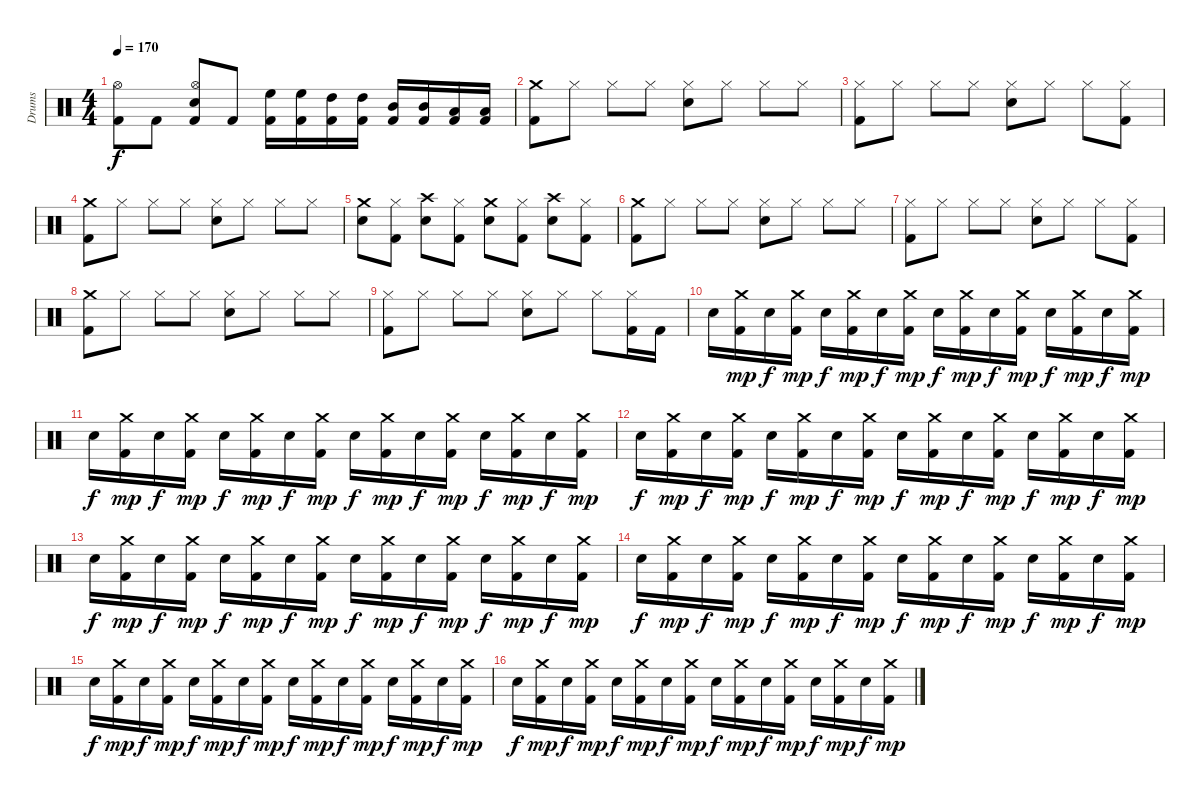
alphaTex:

\track ("Drums" "Drums") {instrument percussion}
\staff {score}
\articulation defaults
\ts (4 4)
\tempo 170
\clef neutral
\ks c
("Kick (hit) 2" "Hi-Hat (open)").8{dy f} "Kick (hit) 2".8 ("Kick (hit) 2" "Snare (hit) 2" "Hi-Hat (open)").8 "Kick (hit) 2".8 ("Kick (hit) 2" "High Floor Tom (hit)").16 ("Kick (hit) 2" "High Floor Tom (hit)").16 ("Kick (hit) 2" "High Tom (hit)").16 ("Kick (hit) 2" "High Tom (hit)").16 ("Kick (hit) 2" "Mid Tom (hit)").16 ("Kick (hit) 2" "Mid Tom (hit)").16 ("Kick (hit) 2" "Low Tom (hit)").16 ("Kick (hit) 2" "Low Tom (hit)").16 |
("Kick (hit) 2" "Crash medium (hit)").8 "Hi-Hat (closed)".8 "Hi-Hat (closed)".8 "Hi-Hat (closed)".8 ("Snare (hit) 2" "Hi-Hat (closed)").8 "Hi-Hat (closed)".8 "Hi-Hat (closed)".8 "Hi-Hat (closed)".8 |
("Kick (hit) 2" "Hi-Hat (closed)").8 "Hi-Hat (closed)".8 "Hi-Hat (closed)".8 "Hi-Hat (closed)".8 ("Snare (hit) 2" "Hi-Hat (closed)").8 "Hi-Hat (closed)".8 "Hi-Hat (closed)".8 ("Kick (hit) 2" "Hi-Hat (closed)").8 |
("Kick (hit) 2" "Crash medium (hit)").8 "Hi-Hat (closed)".8 "Hi-Hat (closed)".8 "Hi-Hat (closed)".8 ("Snare (hit) 2" "Hi-Hat (closed)").8 "Hi-Hat (closed)".8 "Hi-Hat (closed)".8 "Hi-Hat (closed)".8 |
("Snare (hit) 2" "Crash medium (hit)").8 ("Kick (hit) 2" "Hi-Hat (closed)").8 ("Snare (hit) 2" "Crash high (hit)").8 ("Kick (hit) 2" "Hi-Hat (closed)").8 ("Snare (hit) 2" "Crash medium (hit)").8 ("Kick (hit) 2" "Hi-Hat (closed)").8 ("Snare (hit) 2" "Crash high (hit)").8 ("Kick (hit) 2" "Hi-Hat (closed)").8 |
("Kick (hit) 2" "Crash medium (hit)").8 "Hi-Hat (closed)".8 "Hi-Hat (closed)".8 "Hi-Hat (closed)".8 ("Snare (hit) 2" "Hi-Hat (closed)").8 "Hi-Hat (closed)".8 "Hi-Hat (closed)".8 "Hi-Hat (closed)".8 |
("Kick (hit) 2" "Hi-Hat (closed)").8 "Hi-Hat (closed)".8 "Hi-Hat (closed)".8 "Hi-Hat (closed)".8 ("Snare (hit) 2" "Hi-Hat (closed)").8 "Hi-Hat (closed)".8 "Hi-Hat (closed)".8 ("Kick (hit) 2" "Hi-Hat (closed)").8 |
("Kick (hit) 2" "Crash medium (hit)").8 "Hi-Hat (closed)".8 "Hi-Hat (closed)".8 "Hi-Hat (closed)".8 ("Snare (hit) 2" "Hi-Hat (closed)").8 "Hi-Hat (closed)".8 "Hi-Hat (closed)".8 "Hi-Hat (closed)".8 |
("Kick (hit) 2" "Hi-Hat (closed)").8 "Hi-Hat (closed)".8 "Hi-Hat (closed)".8 "Hi-Hat (closed)".8 ("Snare (hit) 2" "Hi-Hat (closed)").8 "Hi-Hat (closed)".8 "Hi-Hat (closed)".8 ("Kick (hit) 2" "Hi-Hat (closed)").16 "Kick (hit) 2".16 |
"Snare (hit) 2".16 ("Kick (hit) 2" "Crash medium (hit)").16{dy mp} "Snare (hit) 2".16{dy f} ("Kick (hit) 2" "Crash medium (hit)").16{dy mp} "Snare (hit) 2".16{dy f} ("Kick (hit) 2" "Crash medium (hit)").16{dy mp} "Snare (hit) 2".16{dy f} ("Kick (hit) 2" "Crash medium (hit)").16{dy mp} "Snare (hit) 2".16{dy f} ("Kick (hit) 2" "Crash medium (hit)").16{dy mp} "Snare (hit) 2".16{dy f} ("Kick (hit) 2" "Crash medium (hit)").16{dy mp} "Snare (hit) 2".16{dy f} ("Kick (hit) 2" "Crash medium (hit)").16{dy mp} "Snare (hit) 2".16{dy f} ("Kick (hit) 2" "Crash medium (hit)").16{dy mp} |
"Snare (hit) 2".16{dy f} ("Kick (hit) 2" "Crash medium (hit)").16{dy mp} "Snare (hit) 2".16{dy f} ("Kick (hit) 2" "Crash medium (hit)").16{dy mp} "Snare (hit) 2".16{dy f} ("Kick (hit) 2" "Crash medium (hit)").16{dy mp} "Snare (hit) 2".16{dy f} ("Kick (hit) 2" "Crash medium (hit)").16{dy mp} "Snare (hit) 2".16{dy f} ("Kick (hit) 2" "Crash medium (hit)").16{dy mp} "Snare (hit) 2".16{dy f} ("Kick (hit) 2" "Crash medium (hit)").16{dy mp} "Snare (hit) 2".16{dy f} ("Kick (hit) 2" "Crash medium (hit)").16{dy mp} "Snare (hit) 2".16{dy f} ("Kick (hit) 2" "Crash medium (hit)").16{dy mp} |
"Snare (hit) 2".16{dy f} ("Kick (hit) 2" "Crash medium (hit)").16{dy mp} "Snare (hit) 2".16{dy f} ("Kick (hit) 2" "Crash medium (hit)").16{dy mp} "Snare (hit) 2".16{dy f} ("Kick (hit) 2" "Crash medium (hit)").16{dy mp} "Snare (hit) 2".16{dy f} ("Kick (hit) 2" "Crash medium (hit)").16{dy mp} "Snare (hit) 2".16{dy f} ("Kick (hit) 2" "Crash medium (hit)").16{dy mp} "Snare (hit) 2".16{dy f} ("Kick (hit) 2" "Crash medium (hit)").16{dy mp} "Snare (hit) 2".16{dy f} ("Kick (hit) 2" "Crash medium (hit)").16{dy mp} "Snare (hit) 2".16{dy f} ("Kick (hit) 2" "Crash medium (hit)").16{dy mp} |
"Snare (hit) 2".16{dy f} ("Kick (hit) 2" "Crash medium (hit)").16{dy mp} "Snare (hit) 2".16{dy f} ("Kick (hit) 2" "Crash medium (hit)").16{dy mp} "Snare (hit) 2".16{dy f} ("Kick (hit) 2" "Crash medium (hit)").16{dy mp} "Snare (hit) 2".16{dy f} ("Kick (hit) 2" "Crash medium (hit)").16{dy mp} "Snare (hit) 2".16{dy f} ("Kick (hit) 2" "Crash medium (hit)").16{dy mp} "Snare (hit) 2".16{dy f} ("Kick (hit) 2" "Crash medium (hit)").16{dy mp} "Snare (hit) 2".16{dy f} ("Kick (hit) 2" "Crash medium (hit)").16{dy mp} "Snare (hit) 2".16{dy f} ("Kick (hit) 2" "Crash medium (hit)").16{dy mp} |
"Snare (hit) 2".16{dy f} ("Kick (hit) 2" "Crash medium (hit)").16{dy mp} "Snare (hit) 2".16{dy f} ("Kick (hit) 2" "Crash medium (hit)").16{dy mp} "Snare (hit) 2".16{dy f} ("Kick (hit) 2" "Crash medium (hit)").16{dy mp} "Snare (hit) 2".16{dy f} ("Kick (hit) 2" "Crash medium (hit)").16{dy mp} "Snare (hit) 2".16{dy f} ("Kick (hit) 2" "Crash medium (hit)").16{dy mp} "Snare (hit) 2".16{dy f} ("Kick (hit) 2" "Crash medium (hit)").16{dy mp} "Snare (hit) 2".16{dy f} ("Kick (hit) 2" "Crash medium (hit)").16{dy mp} "Snare (hit) 2".16{dy f} ("Kick (hit) 2" "Crash medium (hit)").16{dy mp} |
"Snare (hit) 2".16{dy f} ("Kick (hit) 2" "Crash medium (hit)").16{dy mp} "Snare (hit) 2".16{dy f} ("Kick (hit) 2" "Crash medium (hit)").16{dy mp} "Snare (hit) 2".16{dy f} ("Kick (hit) 2" "Crash medium (hit)").16{dy mp} "Snare (hit) 2".16{dy f} ("Kick (hit) 2" "Crash medium (hit)").16{dy mp} "Snare (hit) 2".16{dy f} ("Kick (hit) 2" "Crash medium (hit)").16{dy mp} "Snare (hit) 2".16{dy f} ("Kick (hit) 2" "Crash medium (hit)").16{dy mp} "Snare (hit) 2".16{dy f} ("Kick (hit) 2" "Crash medium (hit)").16{dy mp} "Snare (hit) 2".16{dy f} ("Kick (hit) 2" "Crash medium (hit)").16{dy mp} |
"Snare (hit) 2".16{dy f} ("Kick (hit) 2" "Crash medium (hit)").16{dy mp} "Snare (hit) 2".16{dy f} ("Kick (hit) 2" "Crash medium (hit)").16{dy mp} "Snare (hit) 2".16{dy f} ("Kick (hit) 2" "Crash medium (hit)").16{dy mp} "Snare (hit) 2".16{dy f} ("Kick (hit) 2" "Crash medium (hit)").16{dy mp} "Snare (hit) 2".16{dy f} ("Kick (hit) 2" "Crash medium (hit)").16{dy mp} "Snare (hit) 2".16{dy f} ("Kick (hit) 2" "Crash medium (hit)").16{dy mp} "Snare (hit) 2".16{dy f} ("Kick (hit) 2" "Crash medium (hit)").16{dy mp} "Snare (hit) 2".16{dy f} ("Kick (hit) 2" "Crash medium (hit)").16{dy mp}
